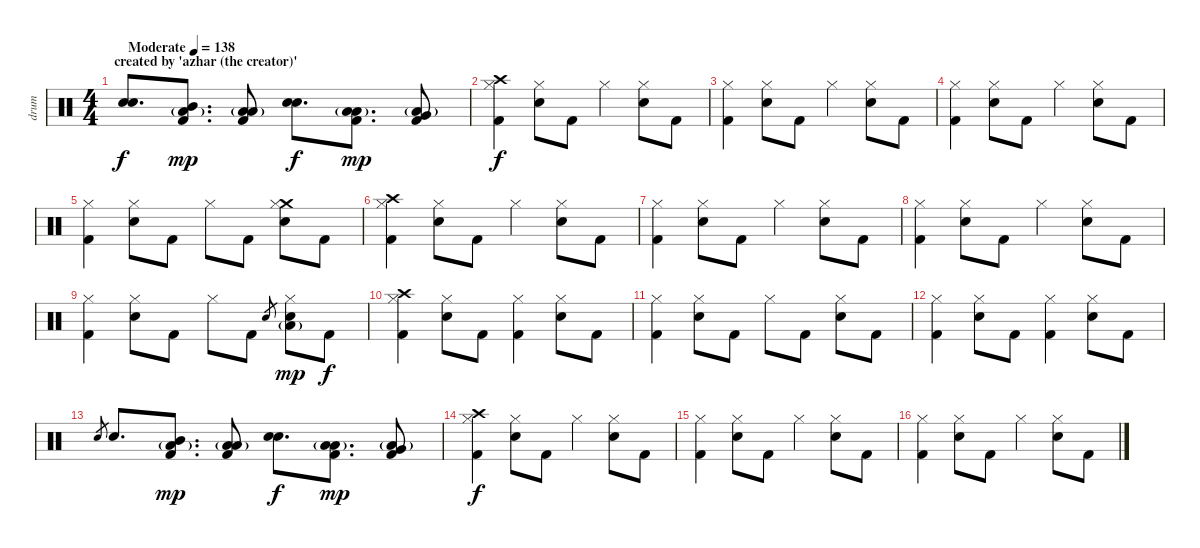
\track ("drum" "drum") {instrument percussion}
\staff {score}
\articulation defaults
\ts (4 4)
\section ("" "created by 'azhar (the creator)'")
\tempo (138 "Moderate")
\clef neutral
\ks c
("Snare (hit) 2" "Snare (hit) 2").8{d bd 240 dy f} ("Low Floor Tom (hit)"{g} "Mid Tom (hit)" "Kick (hit) 2").8{d dy mp} ("Low Floor Tom (hit)"{g} "Low Tom (hit)" "Kick (hit) 2").8 ("Snare (hit) 2" "Snare (hit) 2").8{d bd 240 dy f} ("Low Floor Tom (hit)"{g} "Low Tom (hit)" "Kick (hit) 2").8{d dy mp} ("Low Floor Tom (hit)"{g} "Very Low Tom (hit)" "Kick (hit) 2").8 |
("Crash high (hit)" "Hi-Hat (closed)" "Kick (hit) 2").4{dy f} ("Hi-Hat (closed)" "Snare (hit) 2").8 "Kick (hit) 2".8 "Hi-Hat (closed)".4 ("Hi-Hat (closed)" "Snare (hit) 2").8 "Kick (hit) 2".8 |
("Hi-Hat (closed)" "Kick (hit) 2").4 ("Hi-Hat (closed)" "Snare (hit) 2").8 "Kick (hit) 2".8 "Hi-Hat (closed)".4 ("Hi-Hat (closed)" "Snare (hit) 2").8 "Kick (hit) 2".8 |
("Hi-Hat (closed)" "Kick (hit) 2").4 ("Hi-Hat (closed)" "Snare (hit) 2").8 "Kick (hit) 2".8 "Hi-Hat (closed)".4 ("Hi-Hat (closed)" "Snare (hit) 2").8 "Kick (hit) 2".8 |
("Hi-Hat (closed)" "Kick (hit) 2").4 ("Hi-Hat (closed)" "Snare (hit) 2").8 "Kick (hit) 2".8 "Hi-Hat (closed)".8 "Kick (hit) 2".8 ("Crash medium (hit)" "Hi-Hat (closed)" "Snare (hit) 2").8 "Kick (hit) 2".8 |
("Crash high (hit)" "Hi-Hat (closed)" "Kick (hit) 2").4 ("Hi-Hat (closed)" "Snare (hit) 2").8 "Kick (hit) 2".8 "Hi-Hat (closed)".4 ("Hi-Hat (closed)" "Snare (hit) 2").8 "Kick (hit) 2".8 |
("Hi-Hat (closed)" "Kick (hit) 2").4 ("Hi-Hat (closed)" "Snare (hit) 2").8 "Kick (hit) 2".8 "Hi-Hat (closed)".4 ("Hi-Hat (closed)" "Snare (hit) 2").8 "Kick (hit) 2".8 |
("Hi-Hat (closed)" "Kick (hit) 2").4 ("Hi-Hat (closed)" "Snare (hit) 2").8 "Kick (hit) 2".8 "Hi-Hat (closed)".4 ("Hi-Hat (closed)" "Snare (hit) 2").8 "Kick (hit) 2".8 |
("Hi-Hat (closed)" "Kick (hit) 2").4 ("Hi-Hat (closed)" "Snare (hit) 2").8 "Kick (hit) 2".8 "Hi-Hat (closed)".8 "Kick (hit) 2".8 "Snare (hit) 2".8{gr} ("Hi-Hat (closed)" "Low Floor Tom (hit)"{g} "Snare (hit) 2").8{dy mp} "Kick (hit) 2".8{dy f} |
("Crash high (hit)" "Hi-Hat (closed)" "Kick (hit) 2").4 ("Hi-Hat (closed)" "Snare (hit) 2").8 "Kick (hit) 2".8 ("Hi-Hat (closed)" "Kick (hit) 2").4 ("Hi-Hat (closed)" "Snare (hit) 2").8 "Kick (hit) 2".8 |
("Hi-Hat (closed)" "Kick (hit) 2").4 ("Hi-Hat (closed)" "Snare (hit) 2").8 "Kick (hit) 2".8 "Hi-Hat (closed)".8 "Kick (hit) 2".8 ("Hi-Hat (closed)" "Snare (hit) 2").8 "Kick (hit) 2".8 |
("Hi-Hat (closed)" "Kick (hit) 2").4 ("Hi-Hat (closed)" "Snare (hit) 2").8 "Kick (hit) 2".8 ("Hi-Hat (closed)" "Kick (hit) 2").4 ("Hi-Hat (closed)" "Snare (hit) 2").8 "Kick (hit) 2".8 |
"Snare (hit) 2".8{gr} "Snare (hit) 2".8{d} ("Low Floor Tom (hit)"{g} "Mid Tom (hit)" "Kick (hit) 2").8{d dy mp} ("Low Floor Tom (hit)"{g} "Low Tom (hit)" "Kick (hit) 2").8 ("Snare (hit) 2" "Snare (hit) 2").8{d bd 240 dy f} ("Low Floor Tom (hit)"{g} "Low Tom (hit)" "Kick (hit) 2").8{d dy mp} ("Low Floor Tom (hit)"{g} "Very Low Tom (hit)" "Kick (hit) 2").8 |
("Crash high (hit)" "Hi-Hat (closed)" "Kick (hit) 2").4{dy f} ("Hi-Hat (closed)" "Snare (hit) 2").8 "Kick (hit) 2".8 "Hi-Hat (closed)".4 ("Hi-Hat (closed)" "Snare (hit) 2").8 "Kick (hit) 2".8 |
("Hi-Hat (closed)" "Kick (hit) 2").4 ("Hi-Hat (closed)" "Snare (hit) 2").8 "Kick (hit) 2".8 "Hi-Hat (closed)".4 ("Hi-Hat (closed)" "Snare (hit) 2").8 "Kick (hit) 2".8 |
("Hi-Hat (closed)" "Kick (hit) 2").4 ("Hi-Hat (closed)" "Snare (hit) 2").8 "Kick (hit) 2".8 "Hi-Hat (closed)".4 ("Hi-Hat (closed)" "Snare (hit) 2").8 "Kick (hit) 2".8
